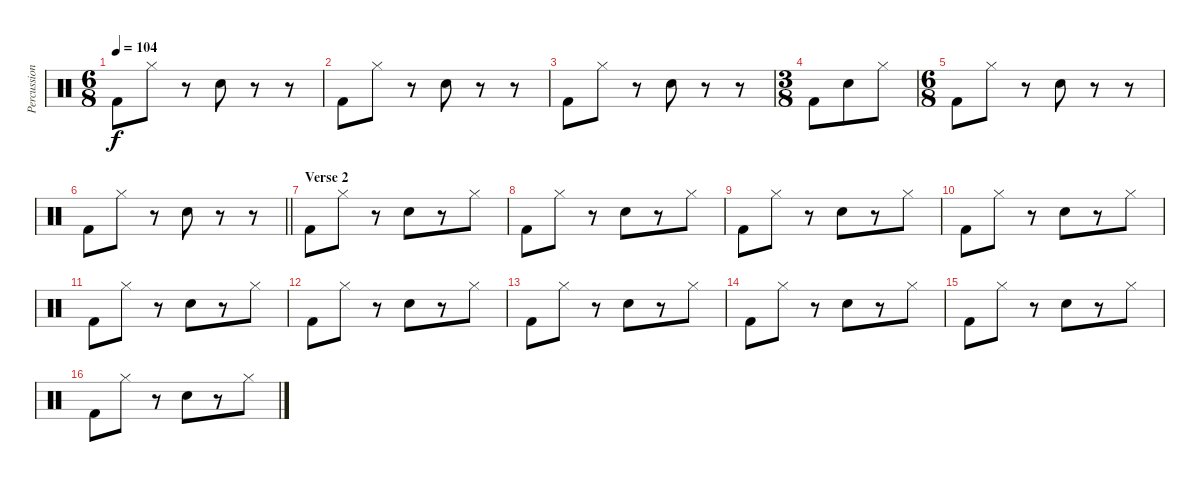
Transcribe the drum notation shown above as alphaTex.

\track ("Percussion" "Percussion") {instrument percussion}
\staff {score}
\articulation defaults
\ts (6 8)
\tempo 104
\clef neutral
\ks c "Kick (hit) 2".8{dy f} "Hi-Hat (closed)".8
r.8 "Snare (hit) 2".8 r.8 r.8 |
"Kick (hit) 2".8 "Hi-Hat (closed)".8 r.8 "Snare (hit) 2".8 r.8 r.8 |
"Kick (hit) 2".8 "Hi-Hat (closed)".8 r.8 "Snare (hit) 2".8 r.8 r.8 |
\ts (3 8)
"Kick (hit) 2".8 "Snare (hit) 2".8 "Hi-Hat (closed)".8 |
\ts (6 8)
"Kick (hit) 2".8 "Hi-Hat (closed)".8 r.8 "Snare (hit) 2".8 r.8 r.8 |
\barLineRight lightlight "Kick (hit) 2".8 "Hi-Hat (closed)".8
r.8 "Snare (hit) 2".8 r.8 r.8 |
\section ("" "Verse 2")
"Kick (hit) 2".8 "Hi-Hat (closed)".8 r.8 "Snare (hit) 2".8 r.8 "Hi-Hat (closed)".8 |
"Kick (hit) 2".8 "Hi-Hat (closed)".8 r.8 "Snare (hit) 2".8 r.8 "Hi-Hat (closed)".8 |
"Kick (hit) 2".8 "Hi-Hat (closed)".8 r.8 "Snare (hit) 2".8 r.8 "Hi-Hat (closed)".8 |
"Kick (hit) 2".8 "Hi-Hat (closed)".8 r.8 "Snare (hit) 2".8 r.8 "Hi-Hat (closed)".8 |
"Kick (hit) 2".8 "Hi-Hat (closed)".8 r.8 "Snare (hit) 2".8 r.8 "Hi-Hat (closed)".8 |
"Kick (hit) 2".8 "Hi-Hat (closed)".8 r.8 "Snare (hit) 2".8 r.8 "Hi-Hat (closed)".8 |
"Kick (hit) 2".8 "Hi-Hat (closed)".8 r.8 "Snare (hit) 2".8 r.8 "Hi-Hat (closed)".8 |
"Kick (hit) 2".8 "Hi-Hat (closed)".8 r.8 "Snare (hit) 2".8 r.8 "Hi-Hat (closed)".8 |
"Kick (hit) 2".8 "Hi-Hat (closed)".8 r.8 "Snare (hit) 2".8 r.8 "Hi-Hat (closed)".8 |
"Kick (hit) 2".8 "Hi-Hat (closed)".8 r.8 "Snare (hit) 2".8 r.8 "Hi-Hat (closed)".8
